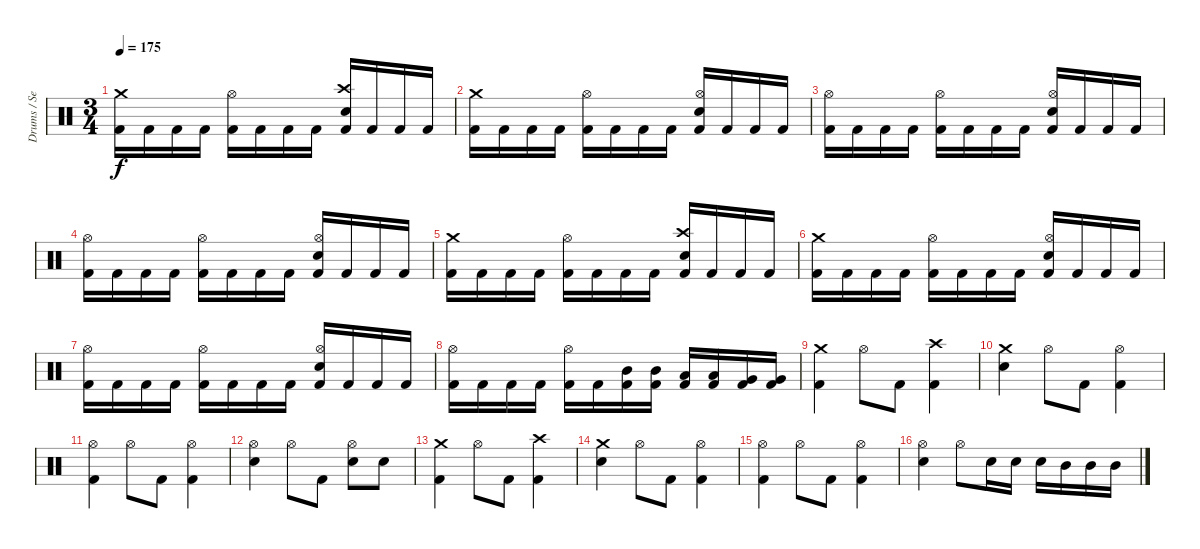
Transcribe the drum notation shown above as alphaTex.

\track ("Drums / Sean" "Drums / Se") {instrument percussion}
\staff {score}
\articulation defaults
\ts (3 4)
\tempo 175
\clef neutral
\ks c
("Crash medium (hit)" "Kick (hit) 2").16{dy f} "Kick (hit) 2".16 "Kick (hit) 2".16 "Kick (hit) 2".16 ("Hi-Hat (open)" "Kick (hit) 2").16 "Kick (hit) 2".16 "Kick (hit) 2".16 "Kick (hit) 2".16 ("Crash high (hit)" "Electric Snare (hit)" "Kick (hit) 2").16 "Kick (hit) 2".16 "Kick (hit) 2".16 "Kick (hit) 2".16 |
("Crash medium (hit)" "Kick (hit) 2").16 "Kick (hit) 2".16 "Kick (hit) 2".16 "Kick (hit) 2".16 ("Hi-Hat (open)" "Kick (hit) 2").16 "Kick (hit) 2".16 "Kick (hit) 2".16 "Kick (hit) 2".16 ("Hi-Hat (open)" "Electric Snare (hit)" "Kick (hit) 2").16 "Kick (hit) 2".16 "Kick (hit) 2".16 "Kick (hit) 2".16 |
("Hi-Hat (open)" "Kick (hit) 2").16 "Kick (hit) 2".16 "Kick (hit) 2".16 "Kick (hit) 2".16 ("Hi-Hat (open)" "Kick (hit) 2").16 "Kick (hit) 2".16 "Kick (hit) 2".16 "Kick (hit) 2".16 ("Hi-Hat (open)" "Electric Snare (hit)" "Kick (hit) 2").16 "Kick (hit) 2".16 "Kick (hit) 2".16 "Kick (hit) 2".16 |
("Hi-Hat (open)" "Kick (hit) 2").16 "Kick (hit) 2".16 "Kick (hit) 2".16 "Kick (hit) 2".16 ("Hi-Hat (open)" "Kick (hit) 2").16 "Kick (hit) 2".16 "Kick (hit) 2".16 "Kick (hit) 2".16 ("Hi-Hat (open)" "Electric Snare (hit)" "Kick (hit) 2").16 "Kick (hit) 2".16 "Kick (hit) 2".16 "Kick (hit) 2".16 |
("Crash medium (hit)" "Kick (hit) 2").16 "Kick (hit) 2".16 "Kick (hit) 2".16 "Kick (hit) 2".16 ("Hi-Hat (open)" "Kick (hit) 2").16 "Kick (hit) 2".16 "Kick (hit) 2".16 "Kick (hit) 2".16 ("Crash high (hit)" "Electric Snare (hit)" "Kick (hit) 2").16 "Kick (hit) 2".16 "Kick (hit) 2".16 "Kick (hit) 2".16 |
("Crash medium (hit)" "Kick (hit) 2").16 "Kick (hit) 2".16 "Kick (hit) 2".16 "Kick (hit) 2".16 ("Hi-Hat (open)" "Kick (hit) 2").16 "Kick (hit) 2".16 "Kick (hit) 2".16 "Kick (hit) 2".16 ("Hi-Hat (open)" "Electric Snare (hit)" "Kick (hit) 2").16 "Kick (hit) 2".16 "Kick (hit) 2".16 "Kick (hit) 2".16 |
("Hi-Hat (open)" "Kick (hit) 2").16 "Kick (hit) 2".16 "Kick (hit) 2".16 "Kick (hit) 2".16 ("Hi-Hat (open)" "Kick (hit) 2").16 "Kick (hit) 2".16 "Kick (hit) 2".16 "Kick (hit) 2".16 ("Hi-Hat (open)" "Electric Snare (hit)" "Kick (hit) 2").16 "Kick (hit) 2".16 "Kick (hit) 2".16 "Kick (hit) 2".16 |
("Hi-Hat (open)" "Kick (hit) 2").16 "Kick (hit) 2".16 "Kick (hit) 2".16 "Kick (hit) 2".16 ("Hi-Hat (open)" "Kick (hit) 2").16 "Kick (hit) 2".16 ("Mid Tom (hit)" "Kick (hit) 2").16 ("Mid Tom (hit)" "Kick (hit) 2").16 ("Low Tom (hit)" "Kick (hit) 2").16 ("Low Tom (hit)" "Kick (hit) 2").16 ("Very Low Tom (hit)" "Kick (hit) 2").16 ("Very Low Tom (hit)" "Kick (hit) 2").16 |
("Crash medium (hit)" "Kick (hit) 2").4 "Hi-Hat (open)".8 "Kick (hit) 2".8 ("Crash high (hit)" "Kick (hit) 2").4 |
("Crash medium (hit)" "Electric Snare (hit)").4 "Hi-Hat (open)".8 "Kick (hit) 2".8 ("Hi-Hat (open)" "Kick (hit) 2").4 |
("Hi-Hat (open)" "Kick (hit) 2").4 "Hi-Hat (open)".8 "Kick (hit) 2".8 ("Hi-Hat (open)" "Kick (hit) 2").4 |
("Hi-Hat (open)" "Electric Snare (hit)").4 "Hi-Hat (open)".8 "Kick (hit) 2".8 ("Hi-Hat (open)" "Electric Snare (hit)").8 "Electric Snare (hit)".8 |
("Crash medium (hit)" "Kick (hit) 2").4 "Hi-Hat (open)".8 "Kick (hit) 2".8 ("Crash high (hit)" "Kick (hit) 2").4 |
("Crash medium (hit)" "Electric Snare (hit)").4 "Hi-Hat (open)".8 "Kick (hit) 2".8 ("Hi-Hat (open)" "Kick (hit) 2").4 |
("Hi-Hat (open)" "Kick (hit) 2").4 "Hi-Hat (open)".8 "Kick (hit) 2".8 ("Hi-Hat (open)" "Kick (hit) 2").4 |
("Hi-Hat (open)" "Electric Snare (hit)").4 "Hi-Hat (open)".8 "Electric Snare (hit)".16 "Electric Snare (hit)".16 "Electric Snare (hit)".16 "Mid Tom (hit)".16 "Mid Tom (hit)".16 "Mid Tom (hit)".16
